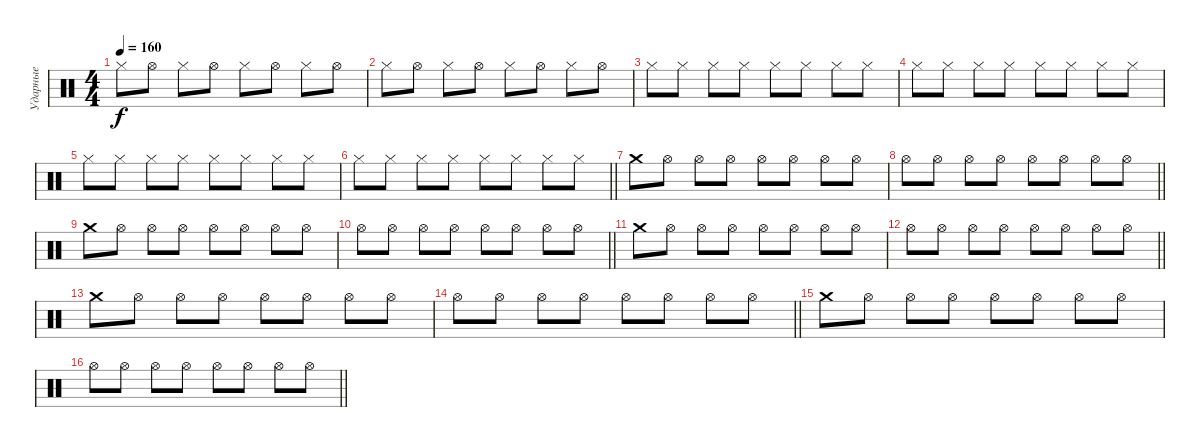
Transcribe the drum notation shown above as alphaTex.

\track ("Ударные" "Ударные") {instrument percussion}
\staff {score}
\articulation defaults
\ts (4 4)
\tempo 160
\clef neutral
\ks c "Hi-Hat (closed)".8{dy f} "Hi-Hat (open)".8 "Hi-Hat (closed)".8 "Hi-Hat (open)".8 "Hi-Hat (closed)".8 "Hi-Hat (open)".8 "Hi-Hat (closed)".8 "Hi-Hat (open)".8
|
"Hi-Hat (closed)".8 "Hi-Hat (open)".8 "Hi-Hat (closed)".8 "Hi-Hat (open)".8 "Hi-Hat (closed)".8 "Hi-Hat (open)".8 "Hi-Hat (closed)".8 "Hi-Hat (open)".8 |
"Hi-Hat (closed)".8 "Hi-Hat (closed)".8 "Hi-Hat (closed)".8 "Hi-Hat (closed)".8 "Hi-Hat (closed)".8 "Hi-Hat (closed)".8 "Hi-Hat (closed)".8 "Hi-Hat (closed)".8 |
"Hi-Hat (closed)".8 "Hi-Hat (closed)".8 "Hi-Hat (closed)".8 "Hi-Hat (closed)".8 "Hi-Hat (closed)".8 "Hi-Hat (closed)".8 "Hi-Hat (closed)".8 "Hi-Hat (closed)".8 |
"Hi-Hat (closed)".8 "Hi-Hat (closed)".8 "Hi-Hat (closed)".8 "Hi-Hat (closed)".8 "Hi-Hat (closed)".8 "Hi-Hat (closed)".8 "Hi-Hat (closed)".8 "Hi-Hat (closed)".8 |
\barLineRight lightlight "Hi-Hat (closed)".8 "Hi-Hat (closed)".8 "Hi-Hat (closed)".8 "Hi-Hat (closed)".8 "Hi-Hat (closed)".8 "Hi-Hat (closed)".8 "Hi-Hat (closed)".8 "Hi-Hat (closed)".8
|
"Crash medium (hit)".8 "Hi-Hat (open)".8 "Hi-Hat (open)".8 "Hi-Hat (open)".8 "Hi-Hat (open)".8 "Hi-Hat (open)".8 "Hi-Hat (open)".8 "Hi-Hat (open)".8 |
\barLineRight lightlight "Hi-Hat (open)".8 "Hi-Hat (open)".8 "Hi-Hat (open)".8 "Hi-Hat (open)".8 "Hi-Hat (open)".8 "Hi-Hat (open)".8 "Hi-Hat (open)".8 "Hi-Hat (open)".8
|
"Crash medium (hit)".8 "Hi-Hat (open)".8 "Hi-Hat (open)".8 "Hi-Hat (open)".8 "Hi-Hat (open)".8 "Hi-Hat (open)".8 "Hi-Hat (open)".8 "Hi-Hat (open)".8 |
\barLineRight lightlight "Hi-Hat (open)".8 "Hi-Hat (open)".8 "Hi-Hat (open)".8 "Hi-Hat (open)".8 "Hi-Hat (open)".8 "Hi-Hat (open)".8 "Hi-Hat (open)".8 "Hi-Hat (open)".8
|
"Crash medium (hit)".8 "Hi-Hat (open)".8 "Hi-Hat (open)".8 "Hi-Hat (open)".8 "Hi-Hat (open)".8 "Hi-Hat (open)".8 "Hi-Hat (open)".8 "Hi-Hat (open)".8 |
\barLineRight lightlight "Hi-Hat (open)".8 "Hi-Hat (open)".8 "Hi-Hat (open)".8 "Hi-Hat (open)".8 "Hi-Hat (open)".8 "Hi-Hat (open)".8 "Hi-Hat (open)".8 "Hi-Hat (open)".8
|
"Crash medium (hit)".8 "Hi-Hat (open)".8 "Hi-Hat (open)".8 "Hi-Hat (open)".8 "Hi-Hat (open)".8 "Hi-Hat (open)".8 "Hi-Hat (open)".8 "Hi-Hat (open)".8 |
\barLineRight lightlight "Hi-Hat (open)".8 "Hi-Hat (open)".8 "Hi-Hat (open)".8 "Hi-Hat (open)".8 "Hi-Hat (open)".8 "Hi-Hat (open)".8 "Hi-Hat (open)".8 "Hi-Hat (open)".8
|
"Crash medium (hit)".8 "Hi-Hat (open)".8 "Hi-Hat (open)".8 "Hi-Hat (open)".8 "Hi-Hat (open)".8 "Hi-Hat (open)".8 "Hi-Hat (open)".8 "Hi-Hat (open)".8 |
\barLineRight lightlight "Hi-Hat (open)".8 "Hi-Hat (open)".8 "Hi-Hat (open)".8 "Hi-Hat (open)".8 "Hi-Hat (open)".8 "Hi-Hat (open)".8 "Hi-Hat (open)".8 "Hi-Hat (open)".8
